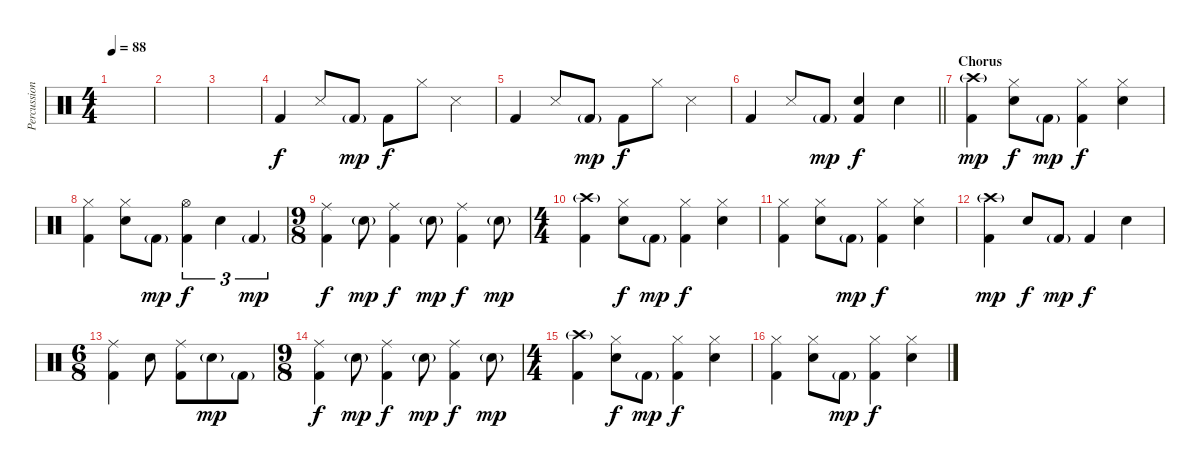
\track ("Percussion" "Percussion") {instrument percussion}
\staff {score}
\articulation defaults
\ts (4 4)
\tempo 88
\clef neutral
\ks c
|
|
|
"Kick (hit) 2".4{dy f} "Snare (side stick) 3".8 "Kick (hit) 2"{g}.8{dy mp} "Kick (hit) 2".8{dy f} "Hi-Hat (closed)".8 "Snare (side stick) 3".4 |
"Kick (hit) 2".4 "Snare (side stick) 3".8 "Kick (hit) 2"{g}.8{dy mp} "Kick (hit) 2".8{dy f} "Hi-Hat (closed)".8 "Snare (side stick) 3".4 |
\barLineRight lightlight "Kick (hit) 2".4 "Snare (side stick) 3".8 "Kick (hit) 2"{g}.8{dy mp}
("Snare (hit) 2" "Kick (hit) 2").4{dy f} "Snare (hit) 2".4 |
\section ("" "Chorus")
("Crash high (hit)"{g} "Kick (hit) 2").4{dy mp} ("Hi-Hat (closed)" "Snare (hit) 2").8{dy f} "Kick (hit) 2"{g}.8{dy mp} ("Hi-Hat (closed)" "Kick (hit) 2").4{dy f} ("Hi-Hat (closed)" "Snare (hit) 2").4 |
("Hi-Hat (closed)" "Kick (hit) 2").4 ("Hi-Hat (closed)" "Snare (hit) 2").8 "Kick (hit) 2"{g}.8{dy mp} ("Hi-Hat (open)" "Kick (hit) 2").4{tu (3 2) dy f} "Snare (hit) 2".4{tu (3 2)} "Kick (hit) 2"{g}.4{tu (3 2) dy mp} |
\ts (9 8)
("Ride (middle)" "Kick (hit) 2").4{dy f} "Snare (hit) 2"{g}.8{dy mp} ("Ride (middle)" "Kick (hit) 2").4{dy f} "Snare (hit) 2"{g}.8{dy mp} ("Ride (middle)" "Kick (hit) 2").4{dy f} "Snare (hit) 2"{g}.8{dy mp} |
\ts (4 4)
("Crash high (hit)"{g} "Kick (hit) 2").4 ("Hi-Hat (closed)" "Snare (hit) 2").8{dy f} "Kick (hit) 2"{g}.8{dy mp} ("Hi-Hat (closed)" "Kick (hit) 2").4{dy f} ("Hi-Hat (closed)" "Snare (hit) 2").4 |
("Hi-Hat (closed)" "Kick (hit) 2").4 ("Hi-Hat (closed)" "Snare (hit) 2").8 "Kick (hit) 2"{g}.8{dy mp} ("Hi-Hat (closed)" "Kick (hit) 2").4{dy f} ("Hi-Hat (closed)" "Snare (hit) 2").4 |
("Crash high (hit)"{g} "Kick (hit) 2").4{dy mp} "Snare (hit) 2".8{dy f} "Kick (hit) 2"{g}.8{dy mp} "Kick (hit) 2".4{dy f} "Snare (hit) 2".4 |
\ts (6 8)
("Ride (middle)" "Kick (hit) 2").4 "Snare (hit) 2".8 ("Ride (middle)" "Kick (hit) 2").8 "Snare (hit) 2"{g}.8{dy mp} "Kick (hit) 2"{g}.8 |
\ts (9 8)
("Ride (middle)" "Kick (hit) 2").4{dy f} "Snare (hit) 2"{g}.8{dy mp} ("Ride (middle)" "Kick (hit) 2").4{dy f} "Snare (hit) 2"{g}.8{dy mp} ("Ride (middle)" "Kick (hit) 2").4{dy f} "Snare (hit) 2"{g}.8{dy mp} |
\ts (4 4)
("Crash high (hit)"{g} "Kick (hit) 2").4 ("Hi-Hat (closed)" "Snare (hit) 2").8{dy f} "Kick (hit) 2"{g}.8{dy mp} ("Hi-Hat (closed)" "Kick (hit) 2").4{dy f} ("Hi-Hat (closed)" "Snare (hit) 2").4 |
("Hi-Hat (closed)" "Kick (hit) 2").4 ("Hi-Hat (closed)" "Snare (hit) 2").8 "Kick (hit) 2"{g}.8{dy mp} ("Hi-Hat (closed)" "Kick (hit) 2").4{dy f} ("Hi-Hat (closed)" "Snare (hit) 2").4
